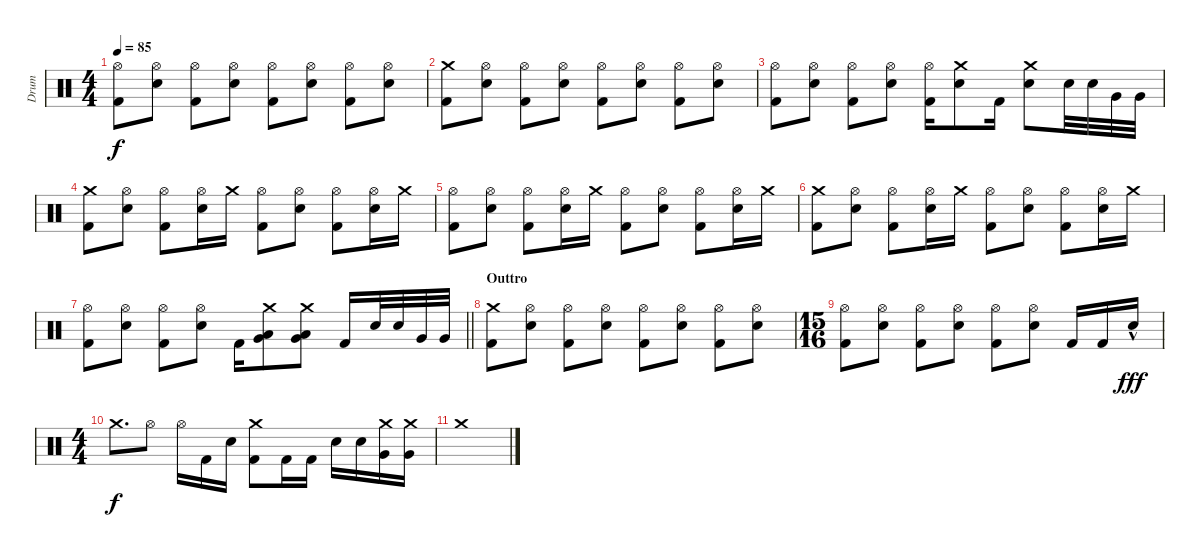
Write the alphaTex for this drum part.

\track ("Drum" "Drum") {instrument percussion}
\staff {score}
\articulation defaults
\ts (4 4)
\tempo 85
\clef neutral
\ks c
("Hi-Hat (open)" "Kick (hit) 2").8{dy f} ("Hi-Hat (open)" "Electric Snare (hit)").8 ("Hi-Hat (open)" "Kick (hit) 2").8 ("Hi-Hat (open)" "Electric Snare (hit)").8 ("Hi-Hat (open)" "Kick (hit) 2").8 ("Hi-Hat (open)" "Electric Snare (hit)").8 ("Hi-Hat (open)" "Kick (hit) 2").8 ("Hi-Hat (open)" "Electric Snare (hit)").8 |
("Crash medium (hit)" "Kick (hit) 2").8 ("Hi-Hat (open)" "Electric Snare (hit)").8 ("Hi-Hat (open)" "Kick (hit) 2").8 ("Hi-Hat (open)" "Electric Snare (hit)").8 ("Hi-Hat (open)" "Kick (hit) 2").8 ("Hi-Hat (open)" "Electric Snare (hit)").8 ("Hi-Hat (open)" "Kick (hit) 2").8 ("Hi-Hat (open)" "Electric Snare (hit)").8 |
("Hi-Hat (open)" "Kick (hit) 2").8 ("Hi-Hat (open)" "Electric Snare (hit)").8 ("Hi-Hat (open)" "Kick (hit) 2").8 ("Hi-Hat (open)" "Electric Snare (hit)").8 ("Hi-Hat (open)" "Kick (hit) 2").16 ("Crash medium (hit)" "Electric Snare (hit)").8 "Kick (hit) 2".16 ("Crash medium (hit)" "Electric Snare (hit)").8 "Electric Snare (hit)".32 "Electric Snare (hit)".32 "Very Low Tom (hit)".32 "Very Low Tom (hit)".32 |
("Crash medium (hit)" "Kick (hit) 2").8 ("Hi-Hat (open)" "Electric Snare (hit)").8 ("Hi-Hat (open)" "Kick (hit) 2").8 ("Hi-Hat (open)" "Electric Snare (hit)").16 "Crash medium (hit)".16 ("Hi-Hat (open)" "Kick (hit) 2").8 ("Hi-Hat (open)" "Electric Snare (hit)").8 ("Hi-Hat (open)" "Kick (hit) 2").8 ("Hi-Hat (open)" "Electric Snare (hit)").16 "Crash medium (hit)".16 |
("Hi-Hat (open)" "Kick (hit) 2").8 ("Hi-Hat (open)" "Electric Snare (hit)").8 ("Hi-Hat (open)" "Kick (hit) 2").8 ("Hi-Hat (open)" "Electric Snare (hit)").16 "Crash medium (hit)".16 ("Hi-Hat (open)" "Kick (hit) 2").8 ("Hi-Hat (open)" "Electric Snare (hit)").8 ("Hi-Hat (open)" "Kick (hit) 2").8 ("Hi-Hat (open)" "Electric Snare (hit)").16 "Crash medium (hit)".16 |
("Crash medium (hit)" "Kick (hit) 2").8 ("Hi-Hat (open)" "Electric Snare (hit)").8 ("Hi-Hat (open)" "Kick (hit) 2").8 ("Hi-Hat (open)" "Electric Snare (hit)").16 "Crash medium (hit)".16 ("Hi-Hat (open)" "Kick (hit) 2").8 ("Hi-Hat (open)" "Electric Snare (hit)").8 ("Hi-Hat (open)" "Kick (hit) 2").8 ("Hi-Hat (open)" "Electric Snare (hit)").16 "Crash medium (hit)".16 |
\barLineRight lightlight
("Hi-Hat (open)" "Kick (hit) 2").8 ("Hi-Hat (open)" "Electric Snare (hit)").8 ("Hi-Hat (open)" "Kick (hit) 2").8 ("Hi-Hat (open)" "Electric Snare (hit)").8 "Kick (hit) 2".16 ("Crash medium (hit)" "Very Low Tom (hit)" "Low Tom (hit)").8 ("Crash medium (hit)" "Very Low Tom (hit)" "Low Tom (hit)").8 "Kick (hit) 2".16 "Electric Snare (hit)".32 "Electric Snare (hit)".32 "Very Low Tom (hit)".32 "Very Low Tom (hit)".32 |
\section ("" "Outtro")
("Crash medium (hit)" "Kick (hit) 2").8 ("Hi-Hat (open)" "Electric Snare (hit)").8 ("Hi-Hat (open)" "Kick (hit) 2").8 ("Hi-Hat (open)" "Electric Snare (hit)").8 ("Hi-Hat (open)" "Kick (hit) 2").8 ("Hi-Hat (open)" "Electric Snare (hit)").8 ("Hi-Hat (open)" "Kick (hit) 2").8 ("Hi-Hat (open)" "Electric Snare (hit)").8 |
\ts (15 16)
("Hi-Hat (open)" "Kick (hit) 2").8 ("Hi-Hat (open)" "Electric Snare (hit)").8 ("Hi-Hat (open)" "Kick (hit) 2").8 ("Hi-Hat (open)" "Electric Snare (hit)").8 ("Hi-Hat (open)" "Kick (hit) 2").8 ("Hi-Hat (open)" "Electric Snare (hit)").8 "Kick (hit) 2".16 "Kick (hit) 2".16 "Electric Snare (hit)"{hac}.16{dy fff} |
\ts (4 4)
"Crash medium (hit)".8{d dy f} "Hi-Hat (open)".8 "Hi-Hat (open)".16 "Kick (hit) 2".16 "Electric Snare (hit)".16 ("Crash medium (hit)" "Kick (hit) 2").8 "Kick (hit) 2".16 "Kick (hit) 2".16 "Electric Snare (hit)".16 "Electric Snare (hit)".16 ("Crash medium (hit)" "Very Low Tom (hit)").16 ("Crash medium (hit)" "Very Low Tom (hit)").16 |
"Crash medium (hit)".1
